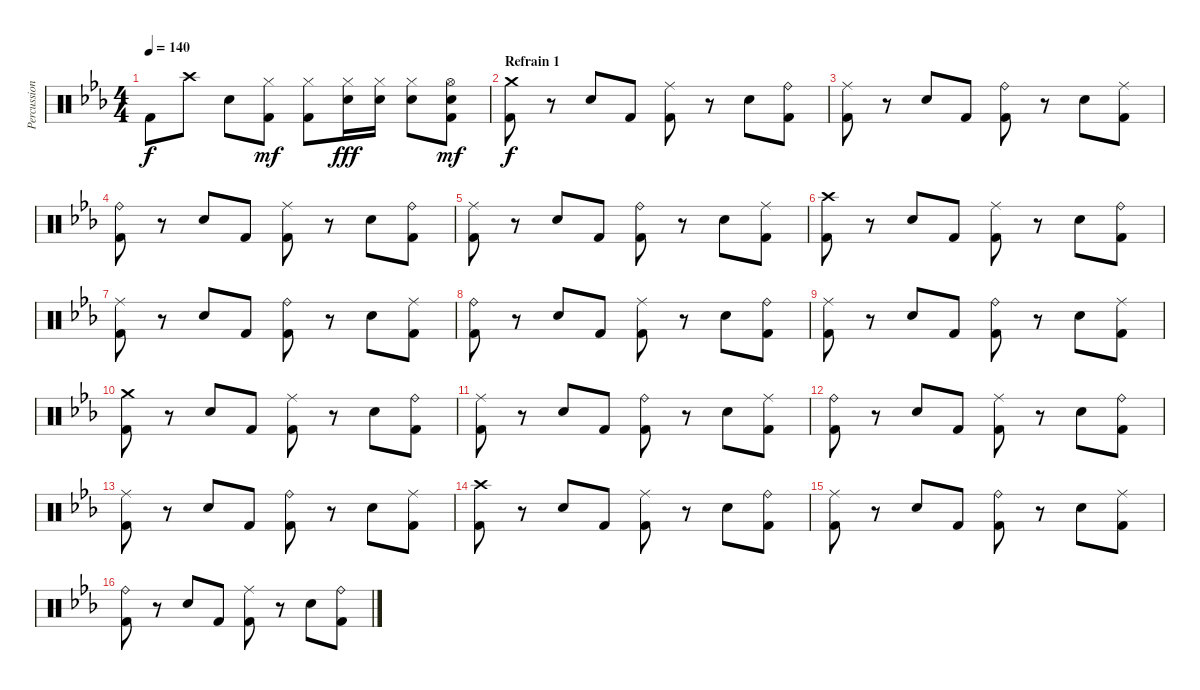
\track ("Percussions" "Percussion") {instrument percussion}
\staff {score}
\articulation defaults
\ts (4 4)
\tempo 140
\clef neutral
\ks eb "Kick (hit) 2".8{dy f} "Crash high (hit)".8 "Snare (hit) 2".8
("Hi-Hat (closed)" "Kick (hit) 2").8{dy mf} ("Hi-Hat (closed)" "Kick (hit) 2").8 ("Hi-Hat (closed)" "Snare (hit) 2").16{dy fff} ("Hi-Hat (closed)" "Snare (hit) 2").16 ("Hi-Hat (closed)" "Snare (hit) 2").8 ("Hi-Hat (open)" "Snare (hit) 2" "Kick (hit) 2").8{dy mf} |
\section ("" "Refrain 1")
("Crash medium (hit)" "Kick (hit) 2").8{dy f} r.8 "Snare (hit) 2".8 "Kick (hit) 2".8 ("Ride (middle)" "Kick (hit) 2").8 r.8 "Snare (hit) 2".8 ("Ride (bell)" "Kick (hit) 2").8 |
("Ride (middle)" "Kick (hit) 2").8 r.8 "Snare (hit) 2".8 "Kick (hit) 2".8 ("Ride (bell)" "Kick (hit) 2").8 r.8 "Snare (hit) 2".8 ("Ride (middle)" "Kick (hit) 2").8 |
("Ride (bell)" "Kick (hit) 2").8 r.8 "Snare (hit) 2".8 "Kick (hit) 2".8 ("Ride (middle)" "Kick (hit) 2").8 r.8 "Snare (hit) 2".8 ("Ride (bell)" "Kick (hit) 2").8 |
("Ride (middle)" "Kick (hit) 2").8 r.8 "Snare (hit) 2".8 "Kick (hit) 2".8 ("Ride (bell)" "Kick (hit) 2").8 r.8 "Snare (hit) 2".8 ("Ride (middle)" "Kick (hit) 2").8 |
("Crash high (hit)" "Kick (hit) 2").8 r.8 "Snare (hit) 2".8 "Kick (hit) 2".8 ("Ride (middle)" "Kick (hit) 2").8 r.8 "Snare (hit) 2".8 ("Ride (bell)" "Kick (hit) 2").8 |
("Ride (middle)" "Kick (hit) 2").8 r.8 "Snare (hit) 2".8 "Kick (hit) 2".8 ("Ride (bell)" "Kick (hit) 2").8 r.8 "Snare (hit) 2".8 ("Ride (middle)" "Kick (hit) 2").8 |
("Ride (bell)" "Kick (hit) 2").8 r.8 "Snare (hit) 2".8 "Kick (hit) 2".8 ("Ride (middle)" "Kick (hit) 2").8 r.8 "Snare (hit) 2".8 ("Ride (bell)" "Kick (hit) 2").8 |
("Ride (middle)" "Kick (hit) 2").8 r.8 "Snare (hit) 2".8 "Kick (hit) 2".8 ("Ride (bell)" "Kick (hit) 2").8 r.8 "Snare (hit) 2".8 ("Ride (middle)" "Kick (hit) 2").8 |
("Crash medium (hit)" "Kick (hit) 2").8 r.8 "Snare (hit) 2".8 "Kick (hit) 2".8 ("Ride (middle)" "Kick (hit) 2").8 r.8 "Snare (hit) 2".8 ("Ride (bell)" "Kick (hit) 2").8 |
("Ride (middle)" "Kick (hit) 2").8 r.8 "Snare (hit) 2".8 "Kick (hit) 2".8 ("Ride (bell)" "Kick (hit) 2").8 r.8 "Snare (hit) 2".8 ("Ride (middle)" "Kick (hit) 2").8 |
("Ride (bell)" "Kick (hit) 2").8 r.8 "Snare (hit) 2".8 "Kick (hit) 2".8 ("Ride (middle)" "Kick (hit) 2").8 r.8 "Snare (hit) 2".8 ("Ride (bell)" "Kick (hit) 2").8 |
("Ride (middle)" "Kick (hit) 2").8 r.8 "Snare (hit) 2".8 "Kick (hit) 2".8 ("Ride (bell)" "Kick (hit) 2").8 r.8 "Snare (hit) 2".8 ("Ride (middle)" "Kick (hit) 2").8 |
("Crash high (hit)" "Kick (hit) 2").8 r.8 "Snare (hit) 2".8 "Kick (hit) 2".8 ("Ride (middle)" "Kick (hit) 2").8 r.8 "Snare (hit) 2".8 ("Ride (bell)" "Kick (hit) 2").8 |
("Ride (middle)" "Kick (hit) 2").8 r.8 "Snare (hit) 2".8 "Kick (hit) 2".8 ("Ride (bell)" "Kick (hit) 2").8 r.8 "Snare (hit) 2".8 ("Ride (middle)" "Kick (hit) 2").8 |
("Ride (bell)" "Kick (hit) 2").8 r.8 "Snare (hit) 2".8 "Kick (hit) 2".8 ("Ride (middle)" "Kick (hit) 2").8 r.8 "Snare (hit) 2".8 ("Ride (bell)" "Kick (hit) 2").8
